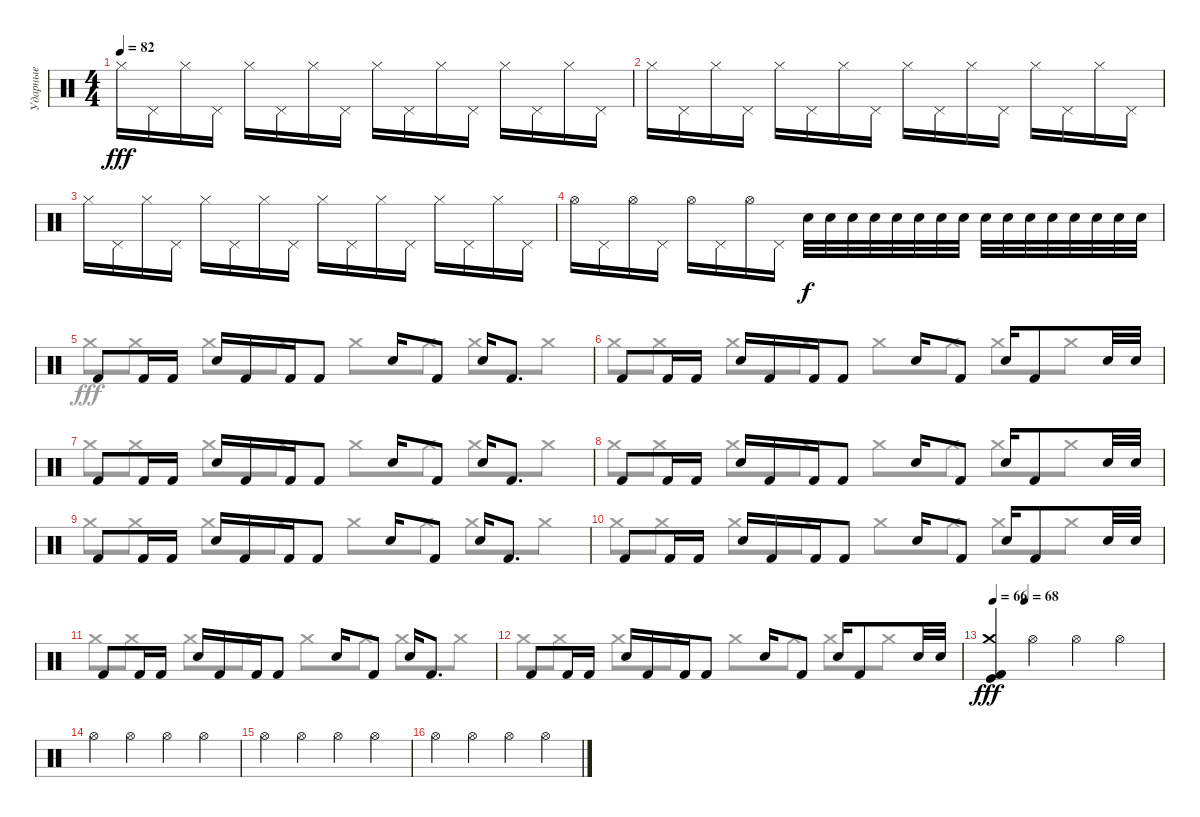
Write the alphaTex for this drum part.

\track ("Ударные" "Ударные") {instrument percussion}
\staff {score}
\articulation defaults
\voice
\ts (4 4)
\tempo 82
\clef neutral
\ks c "Hi-Hat (closed)".16{dy fff} "Pedal Hi-Hat (hit)".16 "Hi-Hat (closed)".16 "Pedal Hi-Hat (hit)".16 "Hi-Hat (closed)".16 "Pedal Hi-Hat (hit)".16 "Hi-Hat (closed)".16 "Pedal Hi-Hat (hit)".16 "Hi-Hat (closed)".16 "Pedal Hi-Hat (hit)".16 "Hi-Hat (closed)".16 "Pedal Hi-Hat (hit)".16 "Hi-Hat (closed)".16 "Pedal Hi-Hat (hit)".16 "Hi-Hat (closed)".16 "Pedal Hi-Hat (hit)".16
|
"Hi-Hat (closed)".16 "Pedal Hi-Hat (hit)".16 "Hi-Hat (closed)".16 "Pedal Hi-Hat (hit)".16 "Hi-Hat (closed)".16 "Pedal Hi-Hat (hit)".16 "Hi-Hat (closed)".16 "Pedal Hi-Hat (hit)".16 "Hi-Hat (closed)".16 "Pedal Hi-Hat (hit)".16 "Hi-Hat (closed)".16 "Pedal Hi-Hat (hit)".16 "Hi-Hat (closed)".16 "Pedal Hi-Hat (hit)".16 "Hi-Hat (closed)".16 "Pedal Hi-Hat (hit)".16 |
"Hi-Hat (closed)".16 "Pedal Hi-Hat (hit)".16 "Hi-Hat (closed)".16 "Pedal Hi-Hat (hit)".16 "Hi-Hat (closed)".16 "Pedal Hi-Hat (hit)".16 "Hi-Hat (closed)".16 "Pedal Hi-Hat (hit)".16 "Hi-Hat (closed)".16 "Pedal Hi-Hat (hit)".16 "Hi-Hat (closed)".16 "Pedal Hi-Hat (hit)".16 "Hi-Hat (closed)".16 "Pedal Hi-Hat (hit)".16 "Hi-Hat (closed)".16 "Pedal Hi-Hat (hit)".16 |
"Hi-Hat (open)".16 "Pedal Hi-Hat (hit)".16 "Hi-Hat (open)".16 "Pedal Hi-Hat (hit)".16 "Hi-Hat (open)".16 "Pedal Hi-Hat (hit)".16 "Hi-Hat (open)".16 "Pedal Hi-Hat (hit)".16 "Electric Snare (hit)".32{dy f} "Electric Snare (hit)".32 "Electric Snare (hit)".32 "Electric Snare (hit)".32 "Electric Snare (hit)".32 "Electric Snare (hit)".32 "Electric Snare (hit)".32 "Electric Snare (hit)".32 "Snare (hit) 2".32 "Snare (hit) 2".32 "Snare (hit) 2".32 "Snare (hit) 2".32 "Snare (hit) 2".32 "Snare (hit) 2".32 "Snare (hit) 2".32 "Snare (hit) 2".32 |
"Kick (hit) 2".8 "Kick (hit) 2".16 "Kick (hit) 2".16 "Snare (hit) 2".16 "Kick (hit) 2".16 "Kick (hit) 2".16 "Kick (hit) 2".8 "Snare (hit) 2".16 "Kick (hit) 2".8 "Snare (hit) 2".16 "Kick (hit) 2".8{d} |
"Kick (hit) 2".8 "Kick (hit) 2".16 "Kick (hit) 2".16 "Snare (hit) 2".16 "Kick (hit) 2".16 "Kick (hit) 2".16 "Kick (hit) 2".8 "Snare (hit) 2".16 "Kick (hit) 2".8 "Snare (hit) 2".16 "Kick (hit) 2".8 "Snare (hit) 2".32 "Snare (hit) 2".32 |
"Kick (hit) 2".8 "Kick (hit) 2".16 "Kick (hit) 2".16 "Snare (hit) 2".16 "Kick (hit) 2".16 "Kick (hit) 2".16 "Kick (hit) 2".8 "Snare (hit) 2".16 "Kick (hit) 2".8 "Snare (hit) 2".16 "Kick (hit) 2".8{d} |
"Kick (hit) 2".8 "Kick (hit) 2".16 "Kick (hit) 2".16 "Snare (hit) 2".16 "Kick (hit) 2".16 "Kick (hit) 2".16 "Kick (hit) 2".8 "Snare (hit) 2".16 "Kick (hit) 2".8 "Snare (hit) 2".16 "Kick (hit) 2".8 "Snare (hit) 2".32 "Snare (hit) 2".32 |
"Kick (hit) 2".8 "Kick (hit) 2".16 "Kick (hit) 2".16 "Snare (hit) 2".16 "Kick (hit) 2".16 "Kick (hit) 2".16 "Kick (hit) 2".8 "Snare (hit) 2".16 "Kick (hit) 2".8 "Snare (hit) 2".16 "Kick (hit) 2".8{d} |
"Kick (hit) 2".8 "Kick (hit) 2".16 "Kick (hit) 2".16 "Snare (hit) 2".16 "Kick (hit) 2".16 "Kick (hit) 2".16 "Kick (hit) 2".8 "Snare (hit) 2".16 "Kick (hit) 2".8 "Snare (hit) 2".16 "Kick (hit) 2".8 "Snare (hit) 2".32 "Snare (hit) 2".32 |
"Kick (hit) 2".8 "Kick (hit) 2".16 "Kick (hit) 2".16 "Snare (hit) 2".16 "Kick (hit) 2".16 "Kick (hit) 2".16 "Kick (hit) 2".8 "Snare (hit) 2".16 "Kick (hit) 2".8 "Snare (hit) 2".16 "Kick (hit) 2".8{d} |
"Kick (hit) 2".8 "Kick (hit) 2".16 "Kick (hit) 2".16 "Snare (hit) 2".16 "Kick (hit) 2".16 "Kick (hit) 2".16 "Kick (hit) 2".8 "Snare (hit) 2".16 "Kick (hit) 2".8 "Snare (hit) 2".16 "Kick (hit) 2".8 "Snare (hit) 2".32 "Snare (hit) 2".32 |
\tempo 66
\tempo (68 0.1875)
("Crash medium (hit)" "Kick (hit) 2" "Kick (hit)").4{dy fff} "Hi-Hat (open)".4 "Hi-Hat (open)".4 "Hi-Hat (open)".4 |
"Hi-Hat (open)".4 "Hi-Hat (open)".4 "Hi-Hat (open)".4 "Hi-Hat (open)".4 |
"Hi-Hat (open)".4 "Hi-Hat (open)".4 "Hi-Hat (open)".4 "Hi-Hat (open)".4 |
"Hi-Hat (open)".4 "Hi-Hat (open)".4 "Hi-Hat (open)".4 "Hi-Hat (open)".4
\voice
\clef neutral
\ottava regular
\simile none
\ks c
|
|
|
|
"Crash medium (hit)".8 "Crash medium (hit)".8 "Crash medium (hit)".8 "Crash medium (hit)".8 "Crash medium (hit)".8 "Crash medium (hit)".8 "Crash medium (hit)".8 "Crash medium (hit)".8 |
"Crash medium (hit)".8 "Crash medium (hit)".8 "Crash medium (hit)".8 "Crash medium (hit)".8 "Crash medium (hit)".8 "Crash medium (hit)".8 "Crash medium (hit)".8 "Crash medium (hit)".8 |
"Crash medium (hit)".8 "Crash medium (hit)".8 "Crash medium (hit)".8 "Crash medium (hit)".8 "Crash medium (hit)".8 "Crash medium (hit)".8 "Crash medium (hit)".8 "Crash medium (hit)".8 |
"Crash medium (hit)".8 "Crash medium (hit)".8 "Crash medium (hit)".8 "Crash medium (hit)".8 "Crash medium (hit)".8 "Crash medium (hit)".8 "Crash medium (hit)".8 "Crash medium (hit)".8 |
"Crash medium (hit)".8 "Crash medium (hit)".8 "Crash medium (hit)".8 "Crash medium (hit)".8 "Crash medium (hit)".8 "Crash medium (hit)".8 "Crash medium (hit)".8 "Crash medium (hit)".8 |
"Crash medium (hit)".8 "Crash medium (hit)".8 "Crash medium (hit)".8 "Crash medium (hit)".8 "Crash medium (hit)".8 "Crash medium (hit)".8 "Crash medium (hit)".8 "Crash medium (hit)".8 |
"Crash medium (hit)".8 "Crash medium (hit)".8 "Crash medium (hit)".8 "Crash medium (hit)".8 "Crash medium (hit)".8 "Crash medium (hit)".8 "Crash medium (hit)".8 "Crash medium (hit)".8 |
"Crash medium (hit)".8 "Crash medium (hit)".8 "Crash medium (hit)".8 "Crash medium (hit)".8 "Crash medium (hit)".8 "Crash medium (hit)".8 "Crash medium (hit)".8 "Crash medium (hit)".8 |
|
|
|
